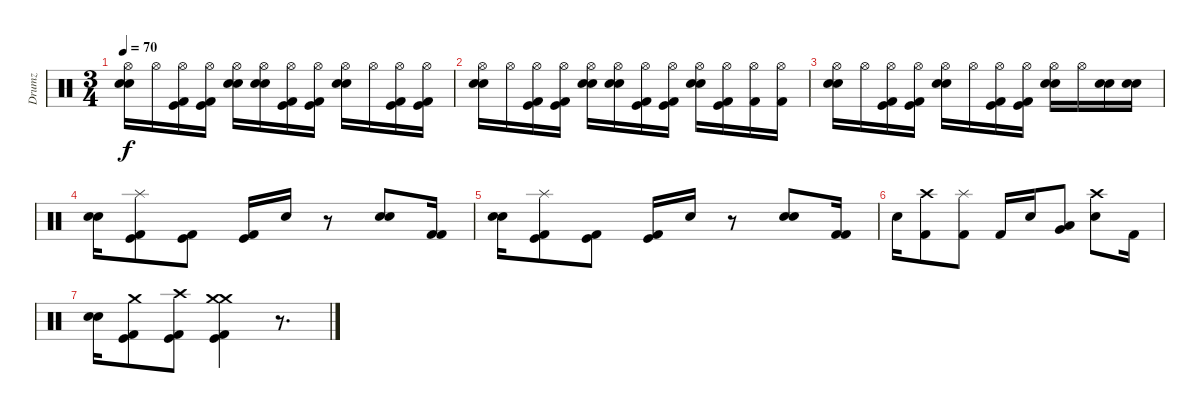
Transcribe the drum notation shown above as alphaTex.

\track ("Drumz" "Drumz") {instrument percussion}
\staff {score}
\articulation defaults
\ts (3 4)
\tempo 70
\clef neutral
\ks c
("Hi-Hat (open)" "Electric Snare (hit)" "Electric Snare (hit)").16{dy f} "Hi-Hat (open)".16 ("Hi-Hat (open)" "Kick (hit) 2" "Kick (hit)").16 ("Hi-Hat (open)" "Kick (hit) 2" "Kick (hit)").16 ("Hi-Hat (open)" "Electric Snare (hit)" "Electric Snare (hit)").16 ("Hi-Hat (open)" "Electric Snare (hit)" "Electric Snare (hit)").16 ("Hi-Hat (open)" "Kick (hit) 2" "Kick (hit)").16 ("Hi-Hat (open)" "Kick (hit) 2" "Kick (hit)").16 ("Hi-Hat (open)" "Electric Snare (hit)" "Electric Snare (hit)").16 "Hi-Hat (open)".16 ("Hi-Hat (open)" "Kick (hit) 2" "Kick (hit)").16 ("Hi-Hat (open)" "Kick (hit) 2" "Kick (hit)").16 |
("Hi-Hat (open)" "Electric Snare (hit)" "Electric Snare (hit)").16 "Hi-Hat (open)".16 ("Hi-Hat (open)" "Kick (hit) 2" "Kick (hit)").16 ("Hi-Hat (open)" "Kick (hit) 2" "Kick (hit)").16 ("Hi-Hat (open)" "Electric Snare (hit)" "Electric Snare (hit)").16 ("Hi-Hat (open)" "Electric Snare (hit)" "Electric Snare (hit)").16 ("Hi-Hat (open)" "Kick (hit) 2" "Kick (hit)").16 ("Hi-Hat (open)" "Kick (hit) 2" "Kick (hit)").16 ("Hi-Hat (open)" "Electric Snare (hit)" "Electric Snare (hit)").16 ("Hi-Hat (open)" "Kick (hit) 2" "Kick (hit)").16 ("Hi-Hat (open)" "Kick (hit) 2").16 ("Hi-Hat (open)" "Kick (hit) 2").16 |
("Hi-Hat (open)" "Electric Snare (hit)" "Electric Snare (hit)").16 "Hi-Hat (open)".16 ("Hi-Hat (open)" "Kick (hit) 2" "Kick (hit)").16 ("Hi-Hat (open)" "Kick (hit) 2" "Kick (hit)").16 ("Hi-Hat (open)" "Electric Snare (hit)" "Electric Snare (hit)").16 "Hi-Hat (open)".16 ("Hi-Hat (open)" "Kick (hit) 2" "Kick (hit)").16 ("Hi-Hat (open)" "Kick (hit) 2" "Kick (hit)").16 ("Hi-Hat (open)" "Electric Snare (hit)" "Electric Snare (hit)").16 "Hi-Hat (open)".16 ("Snare (hit) 2" "Electric Snare (hit)").16 ("Snare (hit) 2" "Electric Snare (hit)").16 |
("Electric Snare (hit)" "Electric Snare (hit)").16 ("Splash (hit)" "Kick (hit) 2" "Kick (hit)").8 ("Kick (hit) 2" "Kick (hit)").8 ("Kick (hit) 2" "Kick (hit)").16 "Electric Snare (hit)".16 r.8 ("Electric Snare (hit)" "Electric Snare (hit)").8 ("Kick (hit) 2" "Kick (hit) 2").16 |
("Electric Snare (hit)" "Electric Snare (hit)").16 ("Splash (hit)" "Kick (hit) 2" "Kick (hit)").8 ("Kick (hit) 2" "Kick (hit)").8 ("Kick (hit) 2" "Kick (hit)").16 "Electric Snare (hit)".16 r.8 ("Electric Snare (hit)" "Electric Snare (hit)").8 ("Kick (hit) 2" "Kick (hit) 2").16 |
"Electric Snare (hit)".16 ("Crash high (hit)" "Kick (hit) 2").8 ("Kick (hit) 2" "Splash (hit)").8 "Kick (hit) 2".16 "Electric Snare (hit)".16 ("Low Floor Tom (hit)" "Very Low Tom (hit)").8 ("Crash high (hit)" "Electric Snare (hit)").8 "Kick (hit) 2".16 |
("Electric Snare (hit)" "Electric Snare (hit)").16 ("Kick (hit) 2" "Crash medium (hit)" "Kick (hit)").8 ("Kick (hit) 2" "Crash high (hit)" "Kick (hit)").8 ("Kick (hit) 2" "Crash medium (hit)" "Crash medium (hit)" "Kick (hit)").4 r.8{d}
